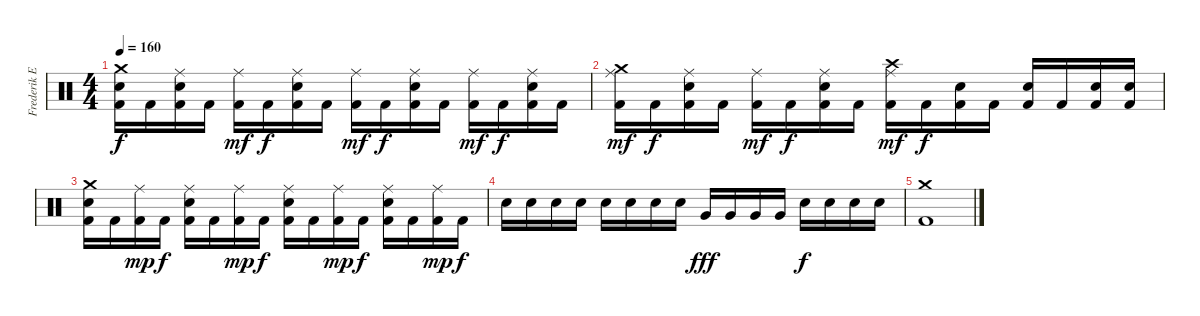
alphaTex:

\track ("Frederik Ehmke" "Frederik E") {instrument percussion}
\staff {score}
\articulation defaults
\ts (4 4)
\tempo 160
\clef neutral
\ks c
("Crash medium (hit)" "Electric Snare (hit)" "Kick (hit) 2").16{dy f} "Kick (hit) 2".16 ("Ride (middle)" "Electric Snare (hit)" "Kick (hit) 2").16 "Kick (hit) 2".16 ("Ride (middle)" "Kick (hit) 2").16{dy mf} "Kick (hit) 2".16{dy f} ("Ride (middle)" "Electric Snare (hit)" "Kick (hit) 2").16 "Kick (hit) 2".16 ("Ride (middle)" "Kick (hit) 2").16{dy mf} "Kick (hit) 2".16{dy f} ("Ride (middle)" "Electric Snare (hit)" "Kick (hit) 2").16 "Kick (hit) 2".16 ("Ride (middle)" "Kick (hit) 2").16{dy mf} "Kick (hit) 2".16{dy f} ("Ride (middle)" "Electric Snare (hit)" "Kick (hit) 2").16 "Kick (hit) 2".16 |
("Ride (middle)" "Crash medium (hit)" "Kick (hit) 2").16{dy mf} "Kick (hit) 2".16{dy f} ("Ride (middle)" "Electric Snare (hit)" "Kick (hit) 2").16 "Kick (hit) 2".16 ("Ride (middle)" "Kick (hit) 2").16{dy mf} "Kick (hit) 2".16{dy f} ("Ride (middle)" "Electric Snare (hit)" "Kick (hit) 2").16 "Kick (hit) 2".16 ("Ride (middle)" "Crash high (hit)" "Kick (hit) 2").16{dy mf} "Kick (hit) 2".16{dy f} ("Electric Snare (hit)" "Kick (hit) 2").16 "Kick (hit) 2".16 ("Electric Snare (hit)" "Kick (hit) 2").16 "Kick (hit) 2".16 ("Electric Snare (hit)" "Kick (hit) 2").16 ("Electric Snare (hit)" "Kick (hit) 2").16 |
("Crash medium (hit)" "Electric Snare (hit)" "Kick (hit) 2").16 "Kick (hit) 2".16 ("Ride (middle)" "Kick (hit) 2").16{dy mp} "Kick (hit) 2".16{dy f} ("Ride (middle)" "Electric Snare (hit)" "Kick (hit) 2").16 "Kick (hit) 2".16 ("Ride (middle)" "Kick (hit) 2").16{dy mp} "Kick (hit) 2".16{dy f} ("Ride (middle)" "Electric Snare (hit)" "Kick (hit) 2").16 "Kick (hit) 2".16 ("Ride (middle)" "Kick (hit) 2").16{dy mp} "Kick (hit) 2".16{dy f} ("Ride (middle)" "Electric Snare (hit)" "Kick (hit) 2").16 "Kick (hit) 2".16 ("Ride (middle)" "Kick (hit) 2").16{dy mp} "Kick (hit) 2".16{dy f} |
"Electric Snare (hit)".16 "Electric Snare (hit)".16 "Electric Snare (hit)".16 "Electric Snare (hit)".16 "Electric Snare (hit)".16 "Electric Snare (hit)".16 "Electric Snare (hit)".16 "Electric Snare (hit)".16 "Very Low Tom (hit)".16{dy fff} "Very Low Tom (hit)".16 "Very Low Tom (hit)".16 "Very Low Tom (hit)".16 "Electric Snare (hit)".16{dy f} "Electric Snare (hit)".16 "Electric Snare (hit)".16 "Electric Snare (hit)".16 |
("Crash medium (hit)" "Kick (hit) 2").1
